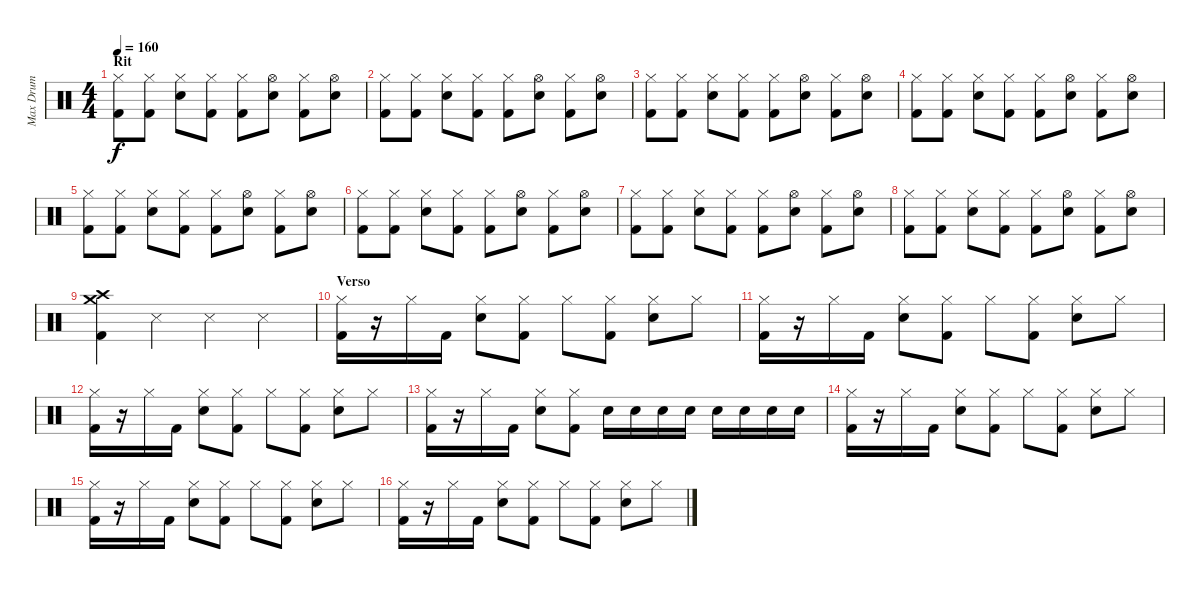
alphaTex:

\track ("Max Drum" "Max Drum") {instrument percussion}
\staff {score}
\articulation defaults
\ts (4 4)
\section ("" "Rit")
\tempo 160
\clef neutral
\ks c
("Hi-Hat (closed)" "Kick (hit) 2").8{dy f} ("Hi-Hat (closed)" "Kick (hit) 2").8 ("Hi-Hat (closed)" "Snare (hit) 2").8 ("Hi-Hat (closed)" "Kick (hit) 2").8 ("Hi-Hat (closed)" "Kick (hit) 2").8 ("Hi-Hat (open)" "Snare (hit) 2").8 ("Hi-Hat (closed)" "Kick (hit) 2").8 ("Hi-Hat (open)" "Snare (hit) 2").8 |
("Hi-Hat (closed)" "Kick (hit) 2").8 ("Hi-Hat (closed)" "Kick (hit) 2").8 ("Hi-Hat (closed)" "Snare (hit) 2").8 ("Hi-Hat (closed)" "Kick (hit) 2").8 ("Hi-Hat (closed)" "Kick (hit) 2").8 ("Hi-Hat (open)" "Snare (hit) 2").8 ("Hi-Hat (closed)" "Kick (hit) 2").8 ("Hi-Hat (open)" "Snare (hit) 2").8 |
("Hi-Hat (closed)" "Kick (hit) 2").8 ("Hi-Hat (closed)" "Kick (hit) 2").8 ("Hi-Hat (closed)" "Snare (hit) 2").8 ("Hi-Hat (closed)" "Kick (hit) 2").8 ("Hi-Hat (closed)" "Kick (hit) 2").8 ("Hi-Hat (open)" "Snare (hit) 2").8 ("Hi-Hat (closed)" "Kick (hit) 2").8 ("Hi-Hat (open)" "Snare (hit) 2").8 |
("Hi-Hat (closed)" "Kick (hit) 2").8 ("Hi-Hat (closed)" "Kick (hit) 2").8 ("Hi-Hat (closed)" "Snare (hit) 2").8 ("Hi-Hat (closed)" "Kick (hit) 2").8 ("Hi-Hat (closed)" "Kick (hit) 2").8 ("Hi-Hat (open)" "Snare (hit) 2").8 ("Hi-Hat (closed)" "Kick (hit) 2").8 ("Hi-Hat (open)" "Snare (hit) 2").8 |
("Hi-Hat (closed)" "Kick (hit) 2").8 ("Hi-Hat (closed)" "Kick (hit) 2").8 ("Hi-Hat (closed)" "Snare (hit) 2").8 ("Hi-Hat (closed)" "Kick (hit) 2").8 ("Hi-Hat (closed)" "Kick (hit) 2").8 ("Hi-Hat (open)" "Snare (hit) 2").8 ("Hi-Hat (closed)" "Kick (hit) 2").8 ("Hi-Hat (open)" "Snare (hit) 2").8 |
("Hi-Hat (closed)" "Kick (hit) 2").8 ("Hi-Hat (closed)" "Kick (hit) 2").8 ("Hi-Hat (closed)" "Snare (hit) 2").8 ("Hi-Hat (closed)" "Kick (hit) 2").8 ("Hi-Hat (closed)" "Kick (hit) 2").8 ("Hi-Hat (open)" "Snare (hit) 2").8 ("Hi-Hat (closed)" "Kick (hit) 2").8 ("Hi-Hat (open)" "Snare (hit) 2").8 |
("Hi-Hat (closed)" "Kick (hit) 2").8 ("Hi-Hat (closed)" "Kick (hit) 2").8 ("Hi-Hat (closed)" "Snare (hit) 2").8 ("Hi-Hat (closed)" "Kick (hit) 2").8 ("Hi-Hat (closed)" "Kick (hit) 2").8 ("Hi-Hat (open)" "Snare (hit) 2").8 ("Hi-Hat (closed)" "Kick (hit) 2").8 ("Hi-Hat (open)" "Snare (hit) 2").8 |
("Hi-Hat (closed)" "Kick (hit) 2").8 ("Hi-Hat (closed)" "Kick (hit) 2").8 ("Hi-Hat (closed)" "Snare (hit) 2").8 ("Hi-Hat (closed)" "Kick (hit) 2").8 ("Hi-Hat (closed)" "Kick (hit) 2").8 ("Hi-Hat (open)" "Snare (hit) 2").8 ("Hi-Hat (closed)" "Kick (hit) 2").8 ("Hi-Hat (open)" "Snare (hit) 2").8 |
("Crash high (hit)" "Crash medium (hit)" "Kick (hit) 2").4 "Snare (side stick) 3".4 "Snare (side stick) 3".4 "Snare (side stick) 3".4 |
\section ("" "Verso")
("Hi-Hat (closed)" "Kick (hit) 2").16 r.16 "Hi-Hat (closed)".16 "Kick (hit) 2".16 ("Hi-Hat (closed)" "Snare (hit) 2").8 ("Hi-Hat (closed)" "Kick (hit) 2").8 "Hi-Hat (closed)".8 ("Hi-Hat (closed)" "Kick (hit) 2").8 ("Hi-Hat (closed)" "Snare (hit) 2").8 "Hi-Hat (closed)".8 |
("Hi-Hat (closed)" "Kick (hit) 2").16 r.16 "Hi-Hat (closed)".16 "Kick (hit) 2".16 ("Hi-Hat (closed)" "Snare (hit) 2").8 ("Hi-Hat (closed)" "Kick (hit) 2").8 "Hi-Hat (closed)".8 ("Hi-Hat (closed)" "Kick (hit) 2").8 ("Hi-Hat (closed)" "Snare (hit) 2").8 "Hi-Hat (closed)".8 |
("Hi-Hat (closed)" "Kick (hit) 2").16 r.16 "Hi-Hat (closed)".16 "Kick (hit) 2".16 ("Hi-Hat (closed)" "Snare (hit) 2").8 ("Hi-Hat (closed)" "Kick (hit) 2").8 "Hi-Hat (closed)".8 ("Hi-Hat (closed)" "Kick (hit) 2").8 ("Hi-Hat (closed)" "Snare (hit) 2").8 "Hi-Hat (closed)".8 |
("Hi-Hat (closed)" "Kick (hit) 2").16 r.16 "Hi-Hat (closed)".16 "Kick (hit) 2".16 ("Hi-Hat (closed)" "Snare (hit) 2").8 ("Hi-Hat (closed)" "Kick (hit) 2").8 "Snare (hit) 2".16 "Snare (hit) 2".16 "Snare (hit) 2".16 "Snare (hit) 2".16 "Snare (hit) 2".16 "Snare (hit) 2".16 "Snare (hit) 2".16 "Snare (hit) 2".16 |
("Hi-Hat (closed)" "Kick (hit) 2").16 r.16 "Hi-Hat (closed)".16 "Kick (hit) 2".16 ("Hi-Hat (closed)" "Snare (hit) 2").8 ("Hi-Hat (closed)" "Kick (hit) 2").8 "Hi-Hat (closed)".8 ("Hi-Hat (closed)" "Kick (hit) 2").8 ("Hi-Hat (closed)" "Snare (hit) 2").8 "Hi-Hat (closed)".8 |
("Hi-Hat (closed)" "Kick (hit) 2").16 r.16 "Hi-Hat (closed)".16 "Kick (hit) 2".16 ("Hi-Hat (closed)" "Snare (hit) 2").8 ("Hi-Hat (closed)" "Kick (hit) 2").8 "Hi-Hat (closed)".8 ("Hi-Hat (closed)" "Kick (hit) 2").8 ("Hi-Hat (closed)" "Snare (hit) 2").8 "Hi-Hat (closed)".8 |
("Hi-Hat (closed)" "Kick (hit) 2").16 r.16 "Hi-Hat (closed)".16 "Kick (hit) 2".16 ("Hi-Hat (closed)" "Snare (hit) 2").8 ("Hi-Hat (closed)" "Kick (hit) 2").8 "Hi-Hat (closed)".8 ("Hi-Hat (closed)" "Kick (hit) 2").8 ("Hi-Hat (closed)" "Snare (hit) 2").8 "Hi-Hat (closed)".8
